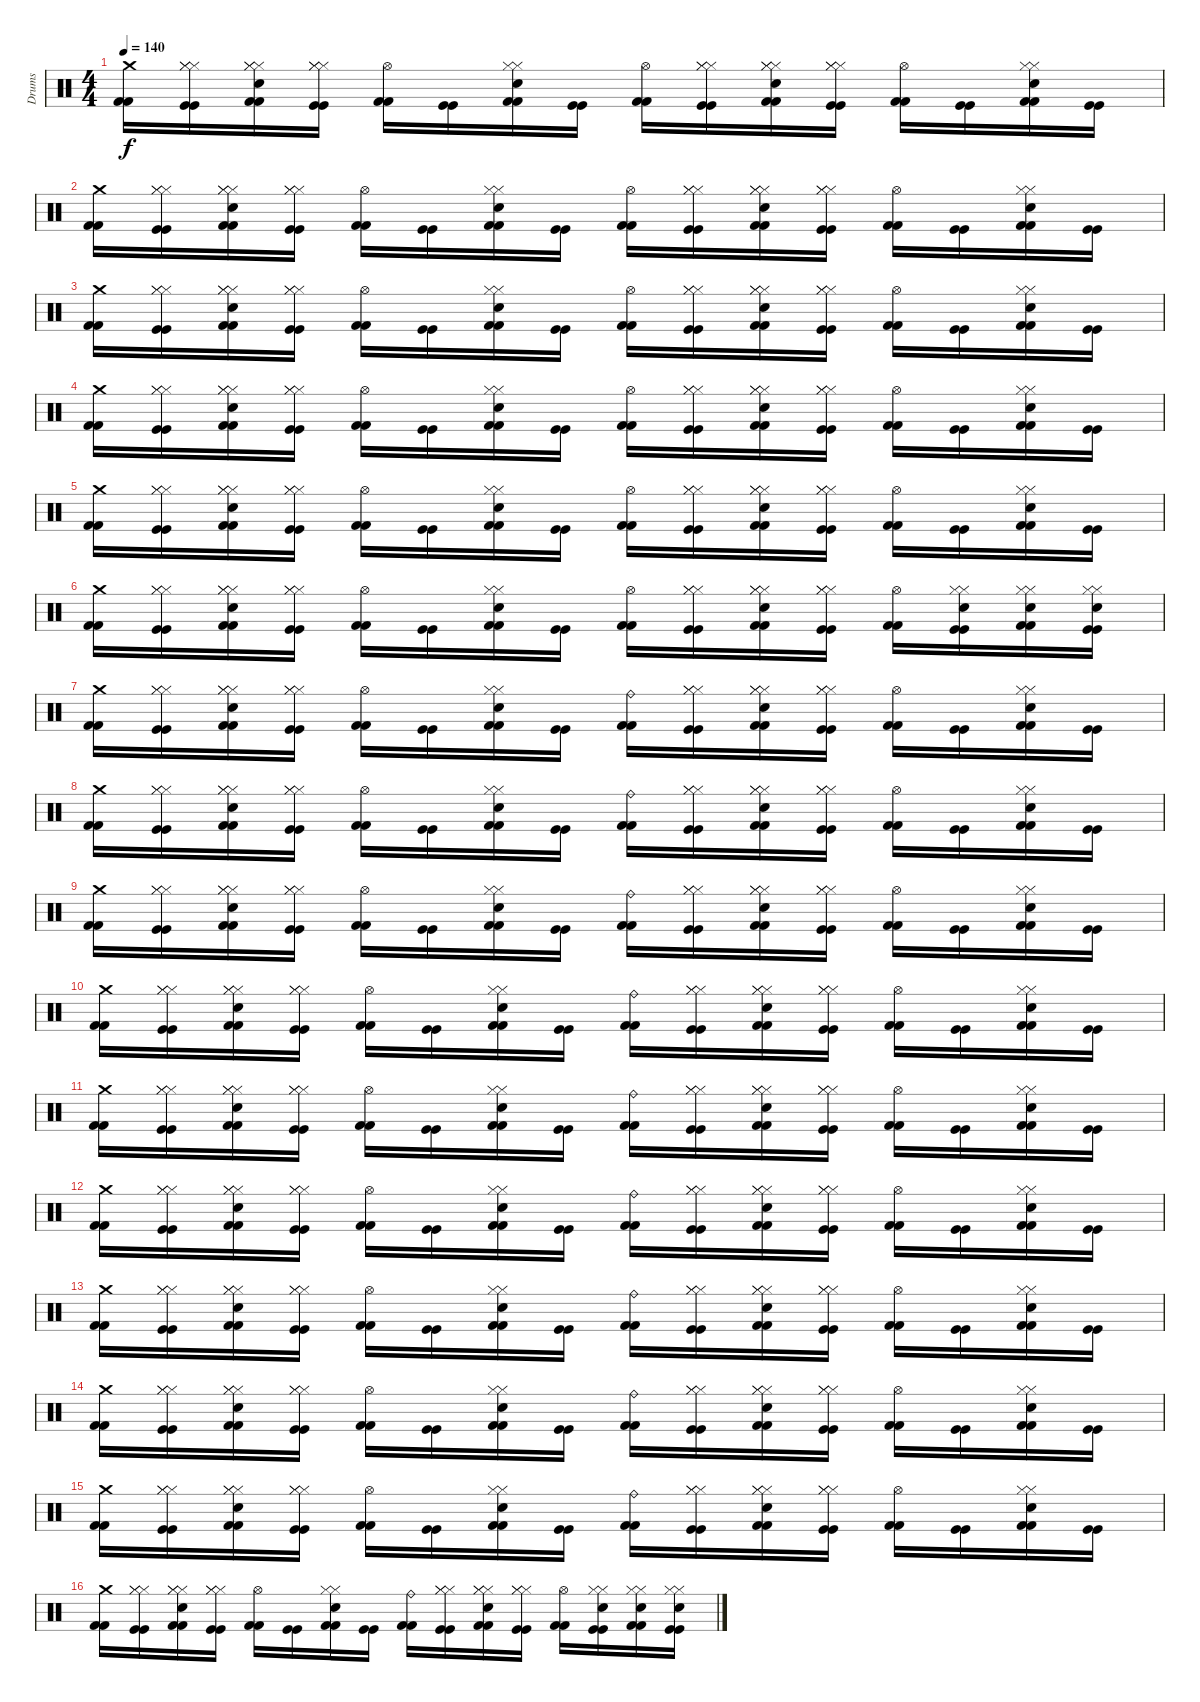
\track ("Drums" "Drums") {instrument percussion}
\staff {score}
\articulation defaults
\ts (4 4)
\tempo 140
\clef neutral
\ks c
("Crash medium (hit)" "Kick (hit) 2" "Kick (hit) 2").16{dy f} ("Hi-Hat (closed)" "Hi-Hat (closed)" "Hi-Hat (closed)" "Kick (hit)" "Kick (hit)").16 ("Hi-Hat (closed)" "Hi-Hat (closed)" "Snare (hit) 2" "Hi-Hat (closed)" "Kick (hit) 2" "Kick (hit) 2").16 ("Hi-Hat (closed)" "Hi-Hat (closed)" "Hi-Hat (closed)" "Kick (hit)" "Kick (hit)").16 ("Hi-Hat (open)" "Kick (hit) 2" "Kick (hit) 2").16 ("Kick (hit)" "Kick (hit)").16 ("Hi-Hat (closed)" "Hi-Hat (closed)" "Snare (hit) 2" "Kick (hit) 2" "Kick (hit) 2").16 ("Kick (hit)" "Kick (hit)").16 ("Hi-Hat (open)" "Kick (hit) 2" "Kick (hit) 2").16 ("Hi-Hat (closed)" "Hi-Hat (closed)" "Hi-Hat (closed)" "Kick (hit)" "Kick (hit)").16 ("Hi-Hat (closed)" "Hi-Hat (closed)" "Snare (hit) 2" "Hi-Hat (closed)" "Kick (hit) 2" "Kick (hit) 2").16 ("Hi-Hat (closed)" "Hi-Hat (closed)" "Hi-Hat (closed)" "Kick (hit)" "Kick (hit)").16 ("Hi-Hat (open)" "Kick (hit) 2" "Kick (hit) 2").16 ("Kick (hit)" "Kick (hit)").16 ("Hi-Hat (closed)" "Hi-Hat (closed)" "Snare (hit) 2" "Kick (hit) 2" "Kick (hit) 2").16 ("Kick (hit)" "Kick (hit)").16 |
("Crash medium (hit)" "Kick (hit) 2" "Kick (hit) 2").16 ("Hi-Hat (closed)" "Hi-Hat (closed)" "Hi-Hat (closed)" "Kick (hit)" "Kick (hit)").16 ("Hi-Hat (closed)" "Hi-Hat (closed)" "Snare (hit) 2" "Hi-Hat (closed)" "Kick (hit) 2" "Kick (hit) 2").16 ("Hi-Hat (closed)" "Hi-Hat (closed)" "Hi-Hat (closed)" "Kick (hit)" "Kick (hit)").16 ("Hi-Hat (open)" "Kick (hit) 2" "Kick (hit) 2").16 ("Kick (hit)" "Kick (hit)").16 ("Hi-Hat (closed)" "Hi-Hat (closed)" "Snare (hit) 2" "Kick (hit) 2" "Kick (hit) 2").16 ("Kick (hit)" "Kick (hit)").16 ("Hi-Hat (open)" "Kick (hit) 2" "Kick (hit) 2").16 ("Hi-Hat (closed)" "Hi-Hat (closed)" "Hi-Hat (closed)" "Kick (hit)" "Kick (hit)").16 ("Hi-Hat (closed)" "Hi-Hat (closed)" "Snare (hit) 2" "Hi-Hat (closed)" "Kick (hit) 2" "Kick (hit) 2").16 ("Hi-Hat (closed)" "Hi-Hat (closed)" "Hi-Hat (closed)" "Kick (hit)" "Kick (hit)").16 ("Hi-Hat (open)" "Kick (hit) 2" "Kick (hit) 2").16 ("Kick (hit)" "Kick (hit)").16 ("Hi-Hat (closed)" "Hi-Hat (closed)" "Snare (hit) 2" "Kick (hit) 2" "Kick (hit) 2").16 ("Kick (hit)" "Kick (hit)").16 |
("Crash medium (hit)" "Kick (hit) 2" "Kick (hit) 2").16 ("Hi-Hat (closed)" "Hi-Hat (closed)" "Hi-Hat (closed)" "Kick (hit)" "Kick (hit)").16 ("Hi-Hat (closed)" "Hi-Hat (closed)" "Snare (hit) 2" "Hi-Hat (closed)" "Kick (hit) 2" "Kick (hit) 2").16 ("Hi-Hat (closed)" "Hi-Hat (closed)" "Hi-Hat (closed)" "Kick (hit)" "Kick (hit)").16 ("Hi-Hat (open)" "Kick (hit) 2" "Kick (hit) 2").16 ("Kick (hit)" "Kick (hit)").16 ("Hi-Hat (closed)" "Hi-Hat (closed)" "Snare (hit) 2" "Kick (hit) 2" "Kick (hit) 2").16 ("Kick (hit)" "Kick (hit)").16 ("Hi-Hat (open)" "Kick (hit) 2" "Kick (hit) 2").16 ("Hi-Hat (closed)" "Hi-Hat (closed)" "Hi-Hat (closed)" "Kick (hit)" "Kick (hit)").16 ("Hi-Hat (closed)" "Hi-Hat (closed)" "Snare (hit) 2" "Hi-Hat (closed)" "Kick (hit) 2" "Kick (hit) 2").16 ("Hi-Hat (closed)" "Hi-Hat (closed)" "Hi-Hat (closed)" "Kick (hit)" "Kick (hit)").16 ("Hi-Hat (open)" "Kick (hit) 2" "Kick (hit) 2").16 ("Kick (hit)" "Kick (hit)").16 ("Hi-Hat (closed)" "Hi-Hat (closed)" "Snare (hit) 2" "Kick (hit) 2" "Kick (hit) 2").16 ("Kick (hit)" "Kick (hit)").16 |
("Crash medium (hit)" "Kick (hit) 2" "Kick (hit) 2").16 ("Hi-Hat (closed)" "Hi-Hat (closed)" "Hi-Hat (closed)" "Kick (hit)" "Kick (hit)").16 ("Hi-Hat (closed)" "Hi-Hat (closed)" "Snare (hit) 2" "Hi-Hat (closed)" "Kick (hit) 2" "Kick (hit) 2").16 ("Hi-Hat (closed)" "Hi-Hat (closed)" "Hi-Hat (closed)" "Kick (hit)" "Kick (hit)").16 ("Hi-Hat (open)" "Kick (hit) 2" "Kick (hit) 2").16 ("Kick (hit)" "Kick (hit)").16 ("Hi-Hat (closed)" "Hi-Hat (closed)" "Snare (hit) 2" "Kick (hit) 2" "Kick (hit) 2").16 ("Kick (hit)" "Kick (hit)").16 ("Hi-Hat (open)" "Kick (hit) 2" "Kick (hit) 2").16 ("Hi-Hat (closed)" "Hi-Hat (closed)" "Hi-Hat (closed)" "Kick (hit)" "Kick (hit)").16 ("Hi-Hat (closed)" "Hi-Hat (closed)" "Snare (hit) 2" "Hi-Hat (closed)" "Kick (hit) 2" "Kick (hit) 2").16 ("Hi-Hat (closed)" "Hi-Hat (closed)" "Hi-Hat (closed)" "Kick (hit)" "Kick (hit)").16 ("Hi-Hat (open)" "Kick (hit) 2" "Kick (hit) 2").16 ("Kick (hit)" "Kick (hit)").16 ("Hi-Hat (closed)" "Hi-Hat (closed)" "Snare (hit) 2" "Kick (hit) 2" "Kick (hit) 2").16 ("Kick (hit)" "Kick (hit)").16 |
("Crash medium (hit)" "Kick (hit) 2" "Kick (hit) 2").16 ("Hi-Hat (closed)" "Hi-Hat (closed)" "Hi-Hat (closed)" "Kick (hit)" "Kick (hit)").16 ("Hi-Hat (closed)" "Hi-Hat (closed)" "Snare (hit) 2" "Hi-Hat (closed)" "Kick (hit) 2" "Kick (hit) 2").16 ("Hi-Hat (closed)" "Hi-Hat (closed)" "Hi-Hat (closed)" "Kick (hit)" "Kick (hit)").16 ("Hi-Hat (open)" "Kick (hit) 2" "Kick (hit) 2").16 ("Kick (hit)" "Kick (hit)").16 ("Hi-Hat (closed)" "Hi-Hat (closed)" "Snare (hit) 2" "Kick (hit) 2" "Kick (hit) 2").16 ("Kick (hit)" "Kick (hit)").16 ("Hi-Hat (open)" "Kick (hit) 2" "Kick (hit) 2").16 ("Hi-Hat (closed)" "Hi-Hat (closed)" "Hi-Hat (closed)" "Kick (hit)" "Kick (hit)").16 ("Hi-Hat (closed)" "Hi-Hat (closed)" "Snare (hit) 2" "Hi-Hat (closed)" "Kick (hit) 2" "Kick (hit) 2").16 ("Hi-Hat (closed)" "Hi-Hat (closed)" "Hi-Hat (closed)" "Kick (hit)" "Kick (hit)").16 ("Hi-Hat (open)" "Kick (hit) 2" "Kick (hit) 2").16 ("Kick (hit)" "Kick (hit)").16 ("Hi-Hat (closed)" "Hi-Hat (closed)" "Snare (hit) 2" "Kick (hit) 2" "Kick (hit) 2").16 ("Kick (hit)" "Kick (hit)").16 |
("Crash medium (hit)" "Kick (hit) 2" "Kick (hit) 2").16 ("Hi-Hat (closed)" "Hi-Hat (closed)" "Hi-Hat (closed)" "Kick (hit)" "Kick (hit)").16 ("Hi-Hat (closed)" "Hi-Hat (closed)" "Snare (hit) 2" "Hi-Hat (closed)" "Kick (hit) 2" "Kick (hit) 2").16 ("Hi-Hat (closed)" "Hi-Hat (closed)" "Hi-Hat (closed)" "Kick (hit)" "Kick (hit)").16 ("Hi-Hat (open)" "Kick (hit) 2" "Kick (hit) 2").16 ("Kick (hit)" "Kick (hit)").16 ("Hi-Hat (closed)" "Hi-Hat (closed)" "Snare (hit) 2" "Kick (hit) 2" "Kick (hit) 2").16 ("Kick (hit)" "Kick (hit)").16 ("Hi-Hat (open)" "Kick (hit) 2" "Kick (hit) 2").16 ("Hi-Hat (closed)" "Hi-Hat (closed)" "Hi-Hat (closed)" "Kick (hit)" "Kick (hit)").16 ("Hi-Hat (closed)" "Hi-Hat (closed)" "Snare (hit) 2" "Hi-Hat (closed)" "Kick (hit) 2" "Kick (hit) 2").16 ("Hi-Hat (closed)" "Hi-Hat (closed)" "Hi-Hat (closed)" "Kick (hit)" "Kick (hit)").16 ("Hi-Hat (open)" "Kick (hit) 2" "Kick (hit) 2").16 ("Hi-Hat (closed)" "Hi-Hat (closed)" "Snare (hit) 2" "Kick (hit)" "Kick (hit)").16 ("Hi-Hat (closed)" "Hi-Hat (closed)" "Snare (hit) 2" "Kick (hit) 2" "Kick (hit) 2").16 ("Hi-Hat (closed)" "Hi-Hat (closed)" "Snare (hit) 2" "Kick (hit)" "Kick (hit)").16 |
("Crash medium (hit)" "Kick (hit) 2" "Kick (hit) 2").16 ("Hi-Hat (closed)" "Hi-Hat (closed)" "Hi-Hat (closed)" "Kick (hit)" "Kick (hit)").16 ("Hi-Hat (closed)" "Hi-Hat (closed)" "Snare (hit) 2" "Hi-Hat (closed)" "Kick (hit) 2" "Kick (hit) 2").16 ("Hi-Hat (closed)" "Hi-Hat (closed)" "Hi-Hat (closed)" "Kick (hit)" "Kick (hit)").16 ("Hi-Hat (open)" "Kick (hit) 2" "Kick (hit) 2").16 ("Kick (hit)" "Kick (hit)").16 ("Hi-Hat (closed)" "Hi-Hat (closed)" "Snare (hit) 2" "Kick (hit) 2" "Kick (hit) 2").16 ("Kick (hit)" "Kick (hit)").16 ("Ride (bell)" "Kick (hit) 2" "Kick (hit) 2").16 ("Hi-Hat (closed)" "Hi-Hat (closed)" "Hi-Hat (closed)" "Kick (hit)" "Kick (hit)").16 ("Hi-Hat (closed)" "Hi-Hat (closed)" "Snare (hit) 2" "Hi-Hat (closed)" "Kick (hit) 2" "Kick (hit) 2").16 ("Hi-Hat (closed)" "Hi-Hat (closed)" "Hi-Hat (closed)" "Kick (hit)" "Kick (hit)").16 ("Hi-Hat (open)" "Kick (hit) 2" "Kick (hit) 2").16 ("Kick (hit)" "Kick (hit)").16 ("Hi-Hat (closed)" "Hi-Hat (closed)" "Snare (hit) 2" "Kick (hit) 2" "Kick (hit) 2").16 ("Kick (hit)" "Kick (hit)").16 |
("Crash medium (hit)" "Kick (hit) 2" "Kick (hit) 2").16 ("Hi-Hat (closed)" "Hi-Hat (closed)" "Hi-Hat (closed)" "Kick (hit)" "Kick (hit)").16 ("Hi-Hat (closed)" "Hi-Hat (closed)" "Snare (hit) 2" "Hi-Hat (closed)" "Kick (hit) 2" "Kick (hit) 2").16 ("Hi-Hat (closed)" "Hi-Hat (closed)" "Hi-Hat (closed)" "Kick (hit)" "Kick (hit)").16 ("Hi-Hat (open)" "Kick (hit) 2" "Kick (hit) 2").16 ("Kick (hit)" "Kick (hit)").16 ("Hi-Hat (closed)" "Hi-Hat (closed)" "Snare (hit) 2" "Kick (hit) 2" "Kick (hit) 2").16 ("Kick (hit)" "Kick (hit)").16 ("Ride (bell)" "Kick (hit) 2" "Kick (hit) 2").16 ("Hi-Hat (closed)" "Hi-Hat (closed)" "Hi-Hat (closed)" "Kick (hit)" "Kick (hit)").16 ("Hi-Hat (closed)" "Hi-Hat (closed)" "Snare (hit) 2" "Hi-Hat (closed)" "Kick (hit) 2" "Kick (hit) 2").16 ("Hi-Hat (closed)" "Hi-Hat (closed)" "Hi-Hat (closed)" "Kick (hit)" "Kick (hit)").16 ("Hi-Hat (open)" "Kick (hit) 2" "Kick (hit) 2").16 ("Kick (hit)" "Kick (hit)").16 ("Hi-Hat (closed)" "Hi-Hat (closed)" "Snare (hit) 2" "Kick (hit) 2" "Kick (hit) 2").16 ("Kick (hit)" "Kick (hit)").16 |
("Crash medium (hit)" "Kick (hit) 2" "Kick (hit) 2").16 ("Hi-Hat (closed)" "Hi-Hat (closed)" "Hi-Hat (closed)" "Kick (hit)" "Kick (hit)").16 ("Hi-Hat (closed)" "Hi-Hat (closed)" "Snare (hit) 2" "Hi-Hat (closed)" "Kick (hit) 2" "Kick (hit) 2").16 ("Hi-Hat (closed)" "Hi-Hat (closed)" "Hi-Hat (closed)" "Kick (hit)" "Kick (hit)").16 ("Hi-Hat (open)" "Kick (hit) 2" "Kick (hit) 2").16 ("Kick (hit)" "Kick (hit)").16 ("Hi-Hat (closed)" "Hi-Hat (closed)" "Snare (hit) 2" "Kick (hit) 2" "Kick (hit) 2").16 ("Kick (hit)" "Kick (hit)").16 ("Ride (bell)" "Kick (hit) 2" "Kick (hit) 2").16 ("Hi-Hat (closed)" "Hi-Hat (closed)" "Hi-Hat (closed)" "Kick (hit)" "Kick (hit)").16 ("Hi-Hat (closed)" "Hi-Hat (closed)" "Snare (hit) 2" "Hi-Hat (closed)" "Kick (hit) 2" "Kick (hit) 2").16 ("Hi-Hat (closed)" "Hi-Hat (closed)" "Hi-Hat (closed)" "Kick (hit)" "Kick (hit)").16 ("Hi-Hat (open)" "Kick (hit) 2" "Kick (hit) 2").16 ("Kick (hit)" "Kick (hit)").16 ("Hi-Hat (closed)" "Hi-Hat (closed)" "Snare (hit) 2" "Kick (hit) 2" "Kick (hit) 2").16 ("Kick (hit)" "Kick (hit)").16 |
("Crash medium (hit)" "Kick (hit) 2" "Kick (hit) 2").16 ("Hi-Hat (closed)" "Hi-Hat (closed)" "Hi-Hat (closed)" "Kick (hit)" "Kick (hit)").16 ("Hi-Hat (closed)" "Hi-Hat (closed)" "Snare (hit) 2" "Hi-Hat (closed)" "Kick (hit) 2" "Kick (hit) 2").16 ("Hi-Hat (closed)" "Hi-Hat (closed)" "Hi-Hat (closed)" "Kick (hit)" "Kick (hit)").16 ("Hi-Hat (open)" "Kick (hit) 2" "Kick (hit) 2").16 ("Kick (hit)" "Kick (hit)").16 ("Hi-Hat (closed)" "Hi-Hat (closed)" "Snare (hit) 2" "Kick (hit) 2" "Kick (hit) 2").16 ("Kick (hit)" "Kick (hit)").16 ("Ride (bell)" "Kick (hit) 2" "Kick (hit) 2").16 ("Hi-Hat (closed)" "Hi-Hat (closed)" "Hi-Hat (closed)" "Kick (hit)" "Kick (hit)").16 ("Hi-Hat (closed)" "Hi-Hat (closed)" "Snare (hit) 2" "Hi-Hat (closed)" "Kick (hit) 2" "Kick (hit) 2").16 ("Hi-Hat (closed)" "Hi-Hat (closed)" "Hi-Hat (closed)" "Kick (hit)" "Kick (hit)").16 ("Hi-Hat (open)" "Kick (hit) 2" "Kick (hit) 2").16 ("Kick (hit)" "Kick (hit)").16 ("Hi-Hat (closed)" "Hi-Hat (closed)" "Snare (hit) 2" "Kick (hit) 2" "Kick (hit) 2").16 ("Kick (hit)" "Kick (hit)").16 |
("Crash medium (hit)" "Kick (hit) 2" "Kick (hit) 2").16 ("Hi-Hat (closed)" "Hi-Hat (closed)" "Hi-Hat (closed)" "Kick (hit)" "Kick (hit)").16 ("Hi-Hat (closed)" "Hi-Hat (closed)" "Snare (hit) 2" "Hi-Hat (closed)" "Kick (hit) 2" "Kick (hit) 2").16 ("Hi-Hat (closed)" "Hi-Hat (closed)" "Hi-Hat (closed)" "Kick (hit)" "Kick (hit)").16 ("Hi-Hat (open)" "Kick (hit) 2" "Kick (hit) 2").16 ("Kick (hit)" "Kick (hit)").16 ("Hi-Hat (closed)" "Hi-Hat (closed)" "Snare (hit) 2" "Kick (hit) 2" "Kick (hit) 2").16 ("Kick (hit)" "Kick (hit)").16 ("Ride (bell)" "Kick (hit) 2" "Kick (hit) 2").16 ("Hi-Hat (closed)" "Hi-Hat (closed)" "Hi-Hat (closed)" "Kick (hit)" "Kick (hit)").16 ("Hi-Hat (closed)" "Hi-Hat (closed)" "Snare (hit) 2" "Hi-Hat (closed)" "Kick (hit) 2" "Kick (hit) 2").16 ("Hi-Hat (closed)" "Hi-Hat (closed)" "Hi-Hat (closed)" "Kick (hit)" "Kick (hit)").16 ("Hi-Hat (open)" "Kick (hit) 2" "Kick (hit) 2").16 ("Kick (hit)" "Kick (hit)").16 ("Hi-Hat (closed)" "Hi-Hat (closed)" "Snare (hit) 2" "Kick (hit) 2" "Kick (hit) 2").16 ("Kick (hit)" "Kick (hit)").16 |
("Crash medium (hit)" "Kick (hit) 2" "Kick (hit) 2").16 ("Hi-Hat (closed)" "Hi-Hat (closed)" "Hi-Hat (closed)" "Kick (hit)" "Kick (hit)").16 ("Hi-Hat (closed)" "Hi-Hat (closed)" "Snare (hit) 2" "Hi-Hat (closed)" "Kick (hit) 2" "Kick (hit) 2").16 ("Hi-Hat (closed)" "Hi-Hat (closed)" "Hi-Hat (closed)" "Kick (hit)" "Kick (hit)").16 ("Hi-Hat (open)" "Kick (hit) 2" "Kick (hit) 2").16 ("Kick (hit)" "Kick (hit)").16 ("Hi-Hat (closed)" "Hi-Hat (closed)" "Snare (hit) 2" "Kick (hit) 2" "Kick (hit) 2").16 ("Kick (hit)" "Kick (hit)").16 ("Ride (bell)" "Kick (hit) 2" "Kick (hit) 2").16 ("Hi-Hat (closed)" "Hi-Hat (closed)" "Hi-Hat (closed)" "Kick (hit)" "Kick (hit)").16 ("Hi-Hat (closed)" "Hi-Hat (closed)" "Snare (hit) 2" "Hi-Hat (closed)" "Kick (hit) 2" "Kick (hit) 2").16 ("Hi-Hat (closed)" "Hi-Hat (closed)" "Hi-Hat (closed)" "Kick (hit)" "Kick (hit)").16 ("Hi-Hat (open)" "Kick (hit) 2" "Kick (hit) 2").16 ("Kick (hit)" "Kick (hit)").16 ("Hi-Hat (closed)" "Hi-Hat (closed)" "Snare (hit) 2" "Kick (hit) 2" "Kick (hit) 2").16 ("Kick (hit)" "Kick (hit)").16 |
("Crash medium (hit)" "Kick (hit) 2" "Kick (hit) 2").16 ("Hi-Hat (closed)" "Hi-Hat (closed)" "Hi-Hat (closed)" "Kick (hit)" "Kick (hit)").16 ("Hi-Hat (closed)" "Hi-Hat (closed)" "Snare (hit) 2" "Hi-Hat (closed)" "Kick (hit) 2" "Kick (hit) 2").16 ("Hi-Hat (closed)" "Hi-Hat (closed)" "Hi-Hat (closed)" "Kick (hit)" "Kick (hit)").16 ("Hi-Hat (open)" "Kick (hit) 2" "Kick (hit) 2").16 ("Kick (hit)" "Kick (hit)").16 ("Hi-Hat (closed)" "Hi-Hat (closed)" "Snare (hit) 2" "Kick (hit) 2" "Kick (hit) 2").16 ("Kick (hit)" "Kick (hit)").16 ("Ride (bell)" "Kick (hit) 2" "Kick (hit) 2").16 ("Hi-Hat (closed)" "Hi-Hat (closed)" "Hi-Hat (closed)" "Kick (hit)" "Kick (hit)").16 ("Hi-Hat (closed)" "Hi-Hat (closed)" "Snare (hit) 2" "Hi-Hat (closed)" "Kick (hit) 2" "Kick (hit) 2").16 ("Hi-Hat (closed)" "Hi-Hat (closed)" "Hi-Hat (closed)" "Kick (hit)" "Kick (hit)").16 ("Hi-Hat (open)" "Kick (hit) 2" "Kick (hit) 2").16 ("Kick (hit)" "Kick (hit)").16 ("Hi-Hat (closed)" "Hi-Hat (closed)" "Snare (hit) 2" "Kick (hit) 2" "Kick (hit) 2").16 ("Kick (hit)" "Kick (hit)").16 |
("Crash medium (hit)" "Kick (hit) 2" "Kick (hit) 2").16 ("Hi-Hat (closed)" "Hi-Hat (closed)" "Hi-Hat (closed)" "Kick (hit)" "Kick (hit)").16 ("Hi-Hat (closed)" "Hi-Hat (closed)" "Snare (hit) 2" "Hi-Hat (closed)" "Kick (hit) 2" "Kick (hit) 2").16 ("Hi-Hat (closed)" "Hi-Hat (closed)" "Hi-Hat (closed)" "Kick (hit)" "Kick (hit)").16 ("Hi-Hat (open)" "Kick (hit) 2" "Kick (hit) 2").16 ("Kick (hit)" "Kick (hit)").16 ("Hi-Hat (closed)" "Hi-Hat (closed)" "Snare (hit) 2" "Kick (hit) 2" "Kick (hit) 2").16 ("Kick (hit)" "Kick (hit)").16 ("Ride (bell)" "Kick (hit) 2" "Kick (hit) 2").16 ("Hi-Hat (closed)" "Hi-Hat (closed)" "Hi-Hat (closed)" "Kick (hit)" "Kick (hit)").16 ("Hi-Hat (closed)" "Hi-Hat (closed)" "Snare (hit) 2" "Hi-Hat (closed)" "Kick (hit) 2" "Kick (hit) 2").16 ("Hi-Hat (closed)" "Hi-Hat (closed)" "Hi-Hat (closed)" "Kick (hit)" "Kick (hit)").16 ("Hi-Hat (open)" "Kick (hit) 2" "Kick (hit) 2").16 ("Kick (hit)" "Kick (hit)").16 ("Hi-Hat (closed)" "Hi-Hat (closed)" "Snare (hit) 2" "Kick (hit) 2" "Kick (hit) 2").16 ("Kick (hit)" "Kick (hit)").16 |
("Crash medium (hit)" "Kick (hit) 2" "Kick (hit) 2").16 ("Hi-Hat (closed)" "Hi-Hat (closed)" "Hi-Hat (closed)" "Kick (hit)" "Kick (hit)").16 ("Hi-Hat (closed)" "Hi-Hat (closed)" "Snare (hit) 2" "Hi-Hat (closed)" "Kick (hit) 2" "Kick (hit) 2").16 ("Hi-Hat (closed)" "Hi-Hat (closed)" "Hi-Hat (closed)" "Kick (hit)" "Kick (hit)").16 ("Hi-Hat (open)" "Kick (hit) 2" "Kick (hit) 2").16 ("Kick (hit)" "Kick (hit)").16 ("Hi-Hat (closed)" "Hi-Hat (closed)" "Snare (hit) 2" "Kick (hit) 2" "Kick (hit) 2").16 ("Kick (hit)" "Kick (hit)").16 ("Ride (bell)" "Kick (hit) 2" "Kick (hit) 2").16 ("Hi-Hat (closed)" "Hi-Hat (closed)" "Hi-Hat (closed)" "Kick (hit)" "Kick (hit)").16 ("Hi-Hat (closed)" "Hi-Hat (closed)" "Snare (hit) 2" "Hi-Hat (closed)" "Kick (hit) 2" "Kick (hit) 2").16 ("Hi-Hat (closed)" "Hi-Hat (closed)" "Hi-Hat (closed)" "Kick (hit)" "Kick (hit)").16 ("Hi-Hat (open)" "Kick (hit) 2" "Kick (hit) 2").16 ("Kick (hit)" "Kick (hit)").16 ("Hi-Hat (closed)" "Hi-Hat (closed)" "Snare (hit) 2" "Kick (hit) 2" "Kick (hit) 2").16 ("Kick (hit)" "Kick (hit)").16 |
("Crash medium (hit)" "Kick (hit) 2" "Kick (hit) 2").16 ("Hi-Hat (closed)" "Hi-Hat (closed)" "Hi-Hat (closed)" "Kick (hit)" "Kick (hit)").16 ("Hi-Hat (closed)" "Hi-Hat (closed)" "Snare (hit) 2" "Hi-Hat (closed)" "Kick (hit) 2" "Kick (hit) 2").16 ("Hi-Hat (closed)" "Hi-Hat (closed)" "Hi-Hat (closed)" "Kick (hit)" "Kick (hit)").16 ("Hi-Hat (open)" "Kick (hit) 2" "Kick (hit) 2").16 ("Kick (hit)" "Kick (hit)").16 ("Hi-Hat (closed)" "Hi-Hat (closed)" "Snare (hit) 2" "Kick (hit) 2" "Kick (hit) 2").16 ("Kick (hit)" "Kick (hit)").16 ("Ride (bell)" "Kick (hit) 2" "Kick (hit) 2").16 ("Hi-Hat (closed)" "Hi-Hat (closed)" "Hi-Hat (closed)" "Kick (hit)" "Kick (hit)").16 ("Hi-Hat (closed)" "Hi-Hat (closed)" "Snare (hit) 2" "Hi-Hat (closed)" "Kick (hit) 2" "Kick (hit) 2").16 ("Hi-Hat (closed)" "Hi-Hat (closed)" "Hi-Hat (closed)" "Kick (hit)" "Kick (hit)").16 ("Hi-Hat (open)" "Kick (hit) 2" "Kick (hit) 2").16 ("Hi-Hat (closed)" "Hi-Hat (closed)" "Snare (hit) 2" "Kick (hit)" "Kick (hit)").16 ("Hi-Hat (closed)" "Hi-Hat (closed)" "Snare (hit) 2" "Kick (hit) 2" "Kick (hit) 2").16 ("Hi-Hat (closed)" "Hi-Hat (closed)" "Snare (hit) 2" "Kick (hit)" "Kick (hit)").16
